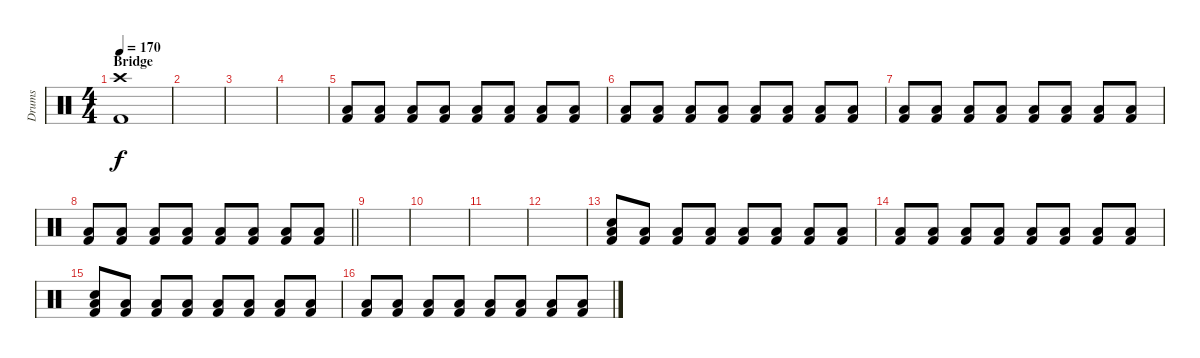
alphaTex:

\track ("Drums" "Drums") {instrument percussion}
\staff {score}
\articulation defaults
\ts (4 4)
\section ("" "Bridge")
\tempo 170
\clef neutral
\ks c
("Crash high (hit)" "Kick (hit) 2").1{dy f} |
|
|
|
("Low Tom (hit)" "Kick (hit) 2").8{volume 16} ("Low Tom (hit)" "Kick (hit) 2").8 ("Low Tom (hit)" "Kick (hit) 2").8 ("Low Tom (hit)" "Kick (hit) 2").8 ("Low Tom (hit)" "Kick (hit) 2").8 ("Low Tom (hit)" "Kick (hit) 2").8 ("Low Tom (hit)" "Kick (hit) 2").8 ("Low Tom (hit)" "Kick (hit) 2").8 |
("Low Tom (hit)" "Kick (hit) 2").8 ("Low Tom (hit)" "Kick (hit) 2").8 ("Low Tom (hit)" "Kick (hit) 2").8 ("Low Tom (hit)" "Kick (hit) 2").8 ("Low Tom (hit)" "Kick (hit) 2").8 ("Low Tom (hit)" "Kick (hit) 2").8 ("Low Tom (hit)" "Kick (hit) 2").8 ("Low Tom (hit)" "Kick (hit) 2").8 |
("Low Tom (hit)" "Kick (hit) 2").8 ("Low Tom (hit)" "Kick (hit) 2").8 ("Low Tom (hit)" "Kick (hit) 2").8 ("Low Tom (hit)" "Kick (hit) 2").8 ("Low Tom (hit)" "Kick (hit) 2").8 ("Low Tom (hit)" "Kick (hit) 2").8 ("Low Tom (hit)" "Kick (hit) 2").8 ("Low Tom (hit)" "Kick (hit) 2").8 |
\barLineRight lightlight
("Low Tom (hit)" "Kick (hit) 2").8 ("Low Tom (hit)" "Kick (hit) 2").8 ("Low Tom (hit)" "Kick (hit) 2").8 ("Low Tom (hit)" "Kick (hit) 2").8 ("Low Tom (hit)" "Kick (hit) 2").8 ("Low Tom (hit)" "Kick (hit) 2").8 ("Low Tom (hit)" "Kick (hit) 2").8 ("Low Tom (hit)" "Kick (hit) 2").8 |
|
|
|
|
("Electric Snare (hit)" "Low Tom (hit)" "Kick (hit) 2").8 ("Low Tom (hit)" "Kick (hit) 2").8 ("Low Tom (hit)" "Kick (hit) 2").8 ("Low Tom (hit)" "Kick (hit) 2").8 ("Low Tom (hit)" "Kick (hit) 2").8 ("Low Tom (hit)" "Kick (hit) 2").8 ("Low Tom (hit)" "Kick (hit) 2").8 ("Low Tom (hit)" "Kick (hit) 2").8 |
("Low Tom (hit)" "Kick (hit) 2").8 ("Low Tom (hit)" "Kick (hit) 2").8 ("Low Tom (hit)" "Kick (hit) 2").8 ("Low Tom (hit)" "Kick (hit) 2").8 ("Low Tom (hit)" "Kick (hit) 2").8 ("Low Tom (hit)" "Kick (hit) 2").8 ("Low Tom (hit)" "Kick (hit) 2").8 ("Low Tom (hit)" "Kick (hit) 2").8 |
("Electric Snare (hit)" "Low Tom (hit)" "Kick (hit) 2").8 ("Low Tom (hit)" "Kick (hit) 2").8 ("Low Tom (hit)" "Kick (hit) 2").8 ("Low Tom (hit)" "Kick (hit) 2").8 ("Low Tom (hit)" "Kick (hit) 2").8 ("Low Tom (hit)" "Kick (hit) 2").8 ("Low Tom (hit)" "Kick (hit) 2").8 ("Low Tom (hit)" "Kick (hit) 2").8 |
("Low Tom (hit)" "Kick (hit) 2").8 ("Low Tom (hit)" "Kick (hit) 2").8 ("Low Tom (hit)" "Kick (hit) 2").8 ("Low Tom (hit)" "Kick (hit) 2").8 ("Low Tom (hit)" "Kick (hit) 2").8 ("Low Tom (hit)" "Kick (hit) 2").8 ("Low Tom (hit)" "Kick (hit) 2").8 ("Low Tom (hit)" "Kick (hit) 2").8
